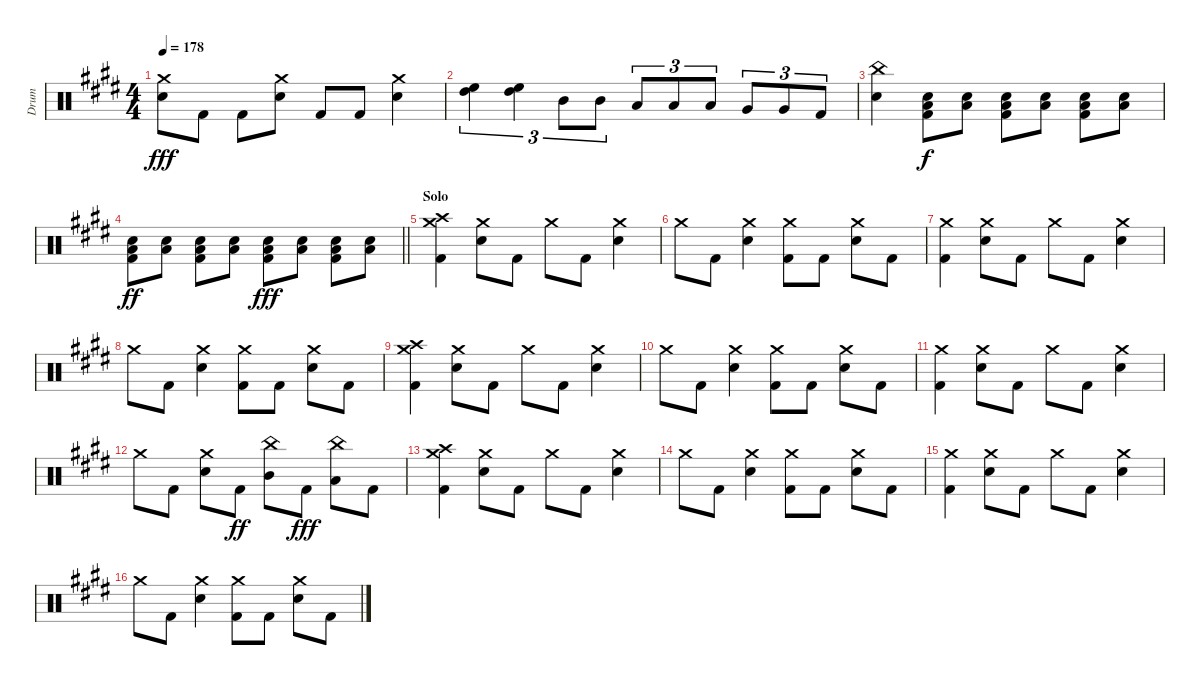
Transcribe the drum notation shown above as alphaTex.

\track ("Drum" "Drum") {instrument percussion}
\staff {score}
\articulation defaults
\ts (4 4)
\tempo 178
\clef neutral
\ks e
("Crash medium (hit)" "Electric Snare (hit)").8{dy fff} "Kick (hit) 2".8 "Kick (hit) 2".8 ("Crash medium (hit)" "Electric Snare (hit)").8 "Kick (hit) 2".8 "Kick (hit) 2".8 ("Crash medium (hit)" "Electric Snare (hit)").4 |
("High Tom (hit)" "High Floor Tom (hit)").4{tu (3 2)} ("High Tom (hit)" "High Floor Tom (hit)").4{tu (3 2)} "Mid Tom (hit)".8{tu (3 2)} "Mid Tom (hit)".8{tu (3 2)} "Low Tom (hit)".8{tu (3 2)} "Low Tom (hit)".8{tu (3 2)} "Low Tom (hit)".8{tu (3 2)} "Very Low Tom (hit)".8{tu (3 2)} "Very Low Tom (hit)".8{tu (3 2)} "Kick (hit) 2".8{tu (3 2)} |
("China (hit)" "Electric Snare (hit)").4 ("Electric Snare (hit)" "Low Tom (hit)" "Kick (hit) 2").8{dy f} ("Electric Snare (hit)" "Low Tom (hit)").8 ("Electric Snare (hit)" "Low Tom (hit)" "Kick (hit) 2").8 ("Electric Snare (hit)" "Low Tom (hit)").8 ("Electric Snare (hit)" "Low Tom (hit)" "Kick (hit) 2").8 ("Electric Snare (hit)" "Low Tom (hit)").8 |
\barLineRight lightlight
("Electric Snare (hit)" "Low Tom (hit)" "Kick (hit) 2").8{dy ff} ("Electric Snare (hit)" "Low Tom (hit)").8 ("Electric Snare (hit)" "Low Tom (hit)" "Kick (hit) 2").8 ("Electric Snare (hit)" "Low Tom (hit)").8 ("Electric Snare (hit)" "Low Tom (hit)" "Kick (hit) 2").8{dy fff} ("Electric Snare (hit)" "Low Tom (hit)").8 ("Electric Snare (hit)" "Low Tom (hit)" "Kick (hit) 2").8 ("Electric Snare (hit)" "Low Tom (hit)").8 |
\section ("" "Solo")
("Crash medium (hit)" "Crash high (hit)" "Kick (hit) 2").4 ("Crash medium (hit)" "Electric Snare (hit)").8 "Kick (hit) 2".8 "Crash medium (hit)".8 "Kick (hit) 2".8 ("Crash medium (hit)" "Electric Snare (hit)").4 |
"Crash medium (hit)".8 "Kick (hit) 2".8 ("Crash medium (hit)" "Electric Snare (hit)").4 ("Crash medium (hit)" "Kick (hit) 2").8 "Kick (hit) 2".8 ("Crash medium (hit)" "Electric Snare (hit)").8 "Kick (hit) 2".8 |
("Crash medium (hit)" "Kick (hit) 2").4 ("Crash medium (hit)" "Electric Snare (hit)").8 "Kick (hit) 2".8 "Crash medium (hit)".8 "Kick (hit) 2".8 ("Crash medium (hit)" "Electric Snare (hit)").4 |
"Crash medium (hit)".8 "Kick (hit) 2".8 ("Crash medium (hit)" "Electric Snare (hit)").4 ("Crash medium (hit)" "Kick (hit) 2").8 "Kick (hit) 2".8 ("Crash medium (hit)" "Electric Snare (hit)").8 "Kick (hit) 2".8 |
("Crash medium (hit)" "Crash high (hit)" "Kick (hit) 2").4 ("Crash medium (hit)" "Electric Snare (hit)").8 "Kick (hit) 2".8 "Crash medium (hit)".8 "Kick (hit) 2".8 ("Crash medium (hit)" "Electric Snare (hit)").4 |
"Crash medium (hit)".8 "Kick (hit) 2".8 ("Crash medium (hit)" "Electric Snare (hit)").4 ("Crash medium (hit)" "Kick (hit) 2").8 "Kick (hit) 2".8 ("Crash medium (hit)" "Electric Snare (hit)").8 "Kick (hit) 2".8 |
("Crash medium (hit)" "Kick (hit) 2").4 ("Crash medium (hit)" "Electric Snare (hit)").8 "Kick (hit) 2".8 "Crash medium (hit)".8 "Kick (hit) 2".8 ("Crash medium (hit)" "Electric Snare (hit)").4 |
"Crash medium (hit)".8 "Kick (hit) 2".8 ("Crash medium (hit)" "Electric Snare (hit)").8 "Kick (hit) 2".8{dy ff} ("China (hit)" "Mid Tom (hit)").8 "Kick (hit) 2".8{dy fff} ("China (hit)" "Low Tom (hit)").8 "Kick (hit) 2".8 |
("Crash medium (hit)" "Crash high (hit)" "Kick (hit) 2").4 ("Crash medium (hit)" "Electric Snare (hit)").8 "Kick (hit) 2".8 "Crash medium (hit)".8 "Kick (hit) 2".8 ("Crash medium (hit)" "Electric Snare (hit)").4 |
"Crash medium (hit)".8 "Kick (hit) 2".8 ("Crash medium (hit)" "Electric Snare (hit)").4 ("Crash medium (hit)" "Kick (hit) 2").8 "Kick (hit) 2".8 ("Crash medium (hit)" "Electric Snare (hit)").8 "Kick (hit) 2".8 |
("Crash medium (hit)" "Kick (hit) 2").4 ("Crash medium (hit)" "Electric Snare (hit)").8 "Kick (hit) 2".8 "Crash medium (hit)".8 "Kick (hit) 2".8 ("Crash medium (hit)" "Electric Snare (hit)").4 |
"Crash medium (hit)".8 "Kick (hit) 2".8 ("Crash medium (hit)" "Electric Snare (hit)").4 ("Crash medium (hit)" "Kick (hit) 2").8 "Kick (hit) 2".8 ("Crash medium (hit)" "Electric Snare (hit)").8 "Kick (hit) 2".8
